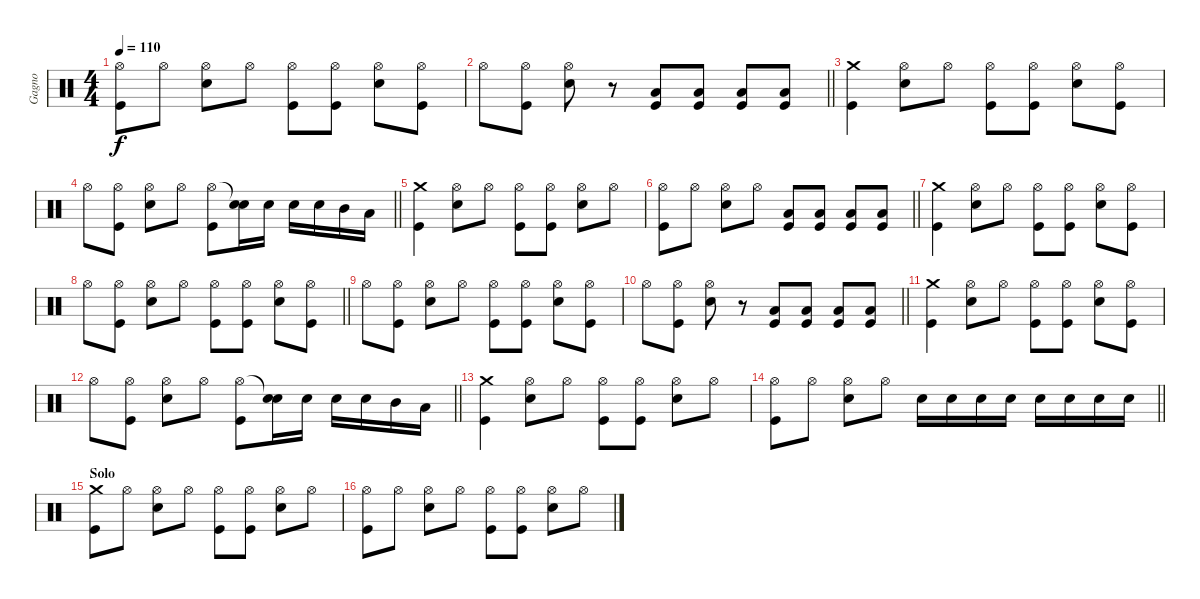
\track ("Gagno" "Gagno") {instrument percussion}
\staff {score}
\articulation defaults
\ts (4 4)
\tempo 110
\clef neutral
\ks c
("Hi-Hat (open)" "Kick (hit)").8{dy f} "Hi-Hat (open)".8 ("Hi-Hat (open)" "Snare (hit) 2").8 "Hi-Hat (open)".8 ("Hi-Hat (open)" "Kick (hit)").8 ("Hi-Hat (open)" "Kick (hit)").8 ("Hi-Hat (open)" "Snare (hit) 2").8 ("Hi-Hat (open)" "Kick (hit)").8 |
\barLineRight lightlight "Hi-Hat (open)".8
("Hi-Hat (open)" "Kick (hit)").8 ("Hi-Hat (open)" "Snare (hit) 2").8 r.8 ("Low Floor Tom (hit)" "Kick (hit)").8 ("Low Floor Tom (hit)" "Kick (hit)").8 ("Low Floor Tom (hit)" "Kick (hit)").8 ("Low Floor Tom (hit)" "Kick (hit)").8 |
("Crash medium (hit)" "Kick (hit)").4 ("Hi-Hat (open)" "Snare (hit) 2").8 "Hi-Hat (open)".8 ("Hi-Hat (open)" "Kick (hit)").8 ("Hi-Hat (open)" "Kick (hit)").8 ("Hi-Hat (open)" "Snare (hit) 2").8 ("Hi-Hat (open)" "Kick (hit)").8 |
\barLineRight lightlight "Hi-Hat (open)".8
("Hi-Hat (open)" "Kick (hit)").8 ("Hi-Hat (open)" "Snare (hit) 2").8 "Hi-Hat (open)".8 ("Hi-Hat (open)" "Kick (hit)").8 ("Snare (hit)"{t} "Snare (hit) 2").16 "Snare (hit) 2".16 "Snare (hit) 2".16 "Snare (hit) 2".16 "Mid Tom (hit)".16 "Low Tom (hit)".16 |
("Crash medium (hit)" "Kick (hit)").4 ("Hi-Hat (open)" "Snare (hit) 2").8 "Hi-Hat (open)".8 ("Hi-Hat (open)" "Kick (hit)").8 ("Hi-Hat (open)" "Kick (hit)").8 ("Hi-Hat (open)" "Snare (hit) 2").8 "Hi-Hat (open)".8 |
\barLineRight lightlight
("Hi-Hat (open)" "Kick (hit)").8 "Hi-Hat (open)".8 ("Hi-Hat (open)" "Snare (hit) 2").8 "Hi-Hat (open)".8 ("Low Floor Tom (hit)" "Kick (hit)").8 ("Low Floor Tom (hit)" "Kick (hit)").8 ("Low Floor Tom (hit)" "Kick (hit)").8 ("Low Floor Tom (hit)" "Kick (hit)").8 |
("Crash medium (hit)" "Kick (hit)").4 ("Hi-Hat (open)" "Snare (hit) 2").8 "Hi-Hat (open)".8 ("Hi-Hat (open)" "Kick (hit)").8 ("Hi-Hat (open)" "Kick (hit)").8 ("Hi-Hat (open)" "Snare (hit) 2").8 ("Hi-Hat (open)" "Kick (hit)").8 |
\barLineRight lightlight "Hi-Hat (open)".8
("Hi-Hat (open)" "Kick (hit)").8 ("Hi-Hat (open)" "Snare (hit) 2").8 "Hi-Hat (open)".8 ("Hi-Hat (open)" "Kick (hit)").8 ("Hi-Hat (open)" "Kick (hit)").8 ("Hi-Hat (open)" "Snare (hit) 2").8 ("Hi-Hat (open)" "Kick (hit)").8 |
"Hi-Hat (open)".8 ("Hi-Hat (open)" "Kick (hit)").8 ("Hi-Hat (open)" "Snare (hit) 2").8 "Hi-Hat (open)".8 ("Hi-Hat (open)" "Kick (hit)").8 ("Hi-Hat (open)" "Kick (hit)").8 ("Hi-Hat (open)" "Snare (hit) 2").8 ("Hi-Hat (open)" "Kick (hit)").8 |
\barLineRight lightlight "Hi-Hat (open)".8
("Hi-Hat (open)" "Kick (hit)").8 ("Hi-Hat (open)" "Snare (hit) 2").8 r.8 ("Low Floor Tom (hit)" "Kick (hit)").8 ("Low Floor Tom (hit)" "Kick (hit)").8 ("Low Floor Tom (hit)" "Kick (hit)").8 ("Low Floor Tom (hit)" "Kick (hit)").8 |
("Crash medium (hit)" "Kick (hit)").4 ("Hi-Hat (open)" "Snare (hit) 2").8 "Hi-Hat (open)".8 ("Hi-Hat (open)" "Kick (hit)").8 ("Hi-Hat (open)" "Kick (hit)").8 ("Hi-Hat (open)" "Snare (hit) 2").8 ("Hi-Hat (open)" "Kick (hit)").8 |
\barLineRight lightlight "Hi-Hat (open)".8
("Hi-Hat (open)" "Kick (hit)").8 ("Hi-Hat (open)" "Snare (hit) 2").8 "Hi-Hat (open)".8 ("Hi-Hat (open)" "Kick (hit)").8 ("Snare (hit)"{t} "Snare (hit) 2").16 "Snare (hit) 2".16 "Snare (hit) 2".16 "Snare (hit) 2".16 "Mid Tom (hit)".16 "Low Tom (hit)".16 |
("Crash medium (hit)" "Kick (hit)").4 ("Hi-Hat (open)" "Snare (hit) 2").8 "Hi-Hat (open)".8 ("Hi-Hat (open)" "Kick (hit)").8 ("Hi-Hat (open)" "Kick (hit)").8 ("Hi-Hat (open)" "Snare (hit) 2").8 "Hi-Hat (open)".8 |
\barLineRight lightlight
("Hi-Hat (open)" "Kick (hit)").8 "Hi-Hat (open)".8 ("Hi-Hat (open)" "Snare (hit) 2").8 "Hi-Hat (open)".8 "Snare (hit) 2".16 "Snare (hit) 2".16 "Snare (hit) 2".16 "Snare (hit) 2".16 "Snare (hit) 2".16 "Snare (hit) 2".16 "Snare (hit) 2".16 "Snare (hit) 2".16 |
\section ("" "Solo")
("Crash medium (hit)" "Kick (hit)").8 "Hi-Hat (open)".8 ("Hi-Hat (open)" "Snare (hit) 2").8 "Hi-Hat (open)".8 ("Hi-Hat (open)" "Kick (hit)").8 ("Hi-Hat (open)" "Kick (hit)").8 ("Hi-Hat (open)" "Snare (hit) 2").8 "Hi-Hat (open)".8 |
("Hi-Hat (open)" "Kick (hit)").8 "Hi-Hat (open)".8 ("Hi-Hat (open)" "Snare (hit) 2").8 "Hi-Hat (open)".8 ("Hi-Hat (open)" "Kick (hit)").8 ("Hi-Hat (open)" "Kick (hit)").8 ("Hi-Hat (open)" "Snare (hit) 2").8 "Hi-Hat (open)".8
